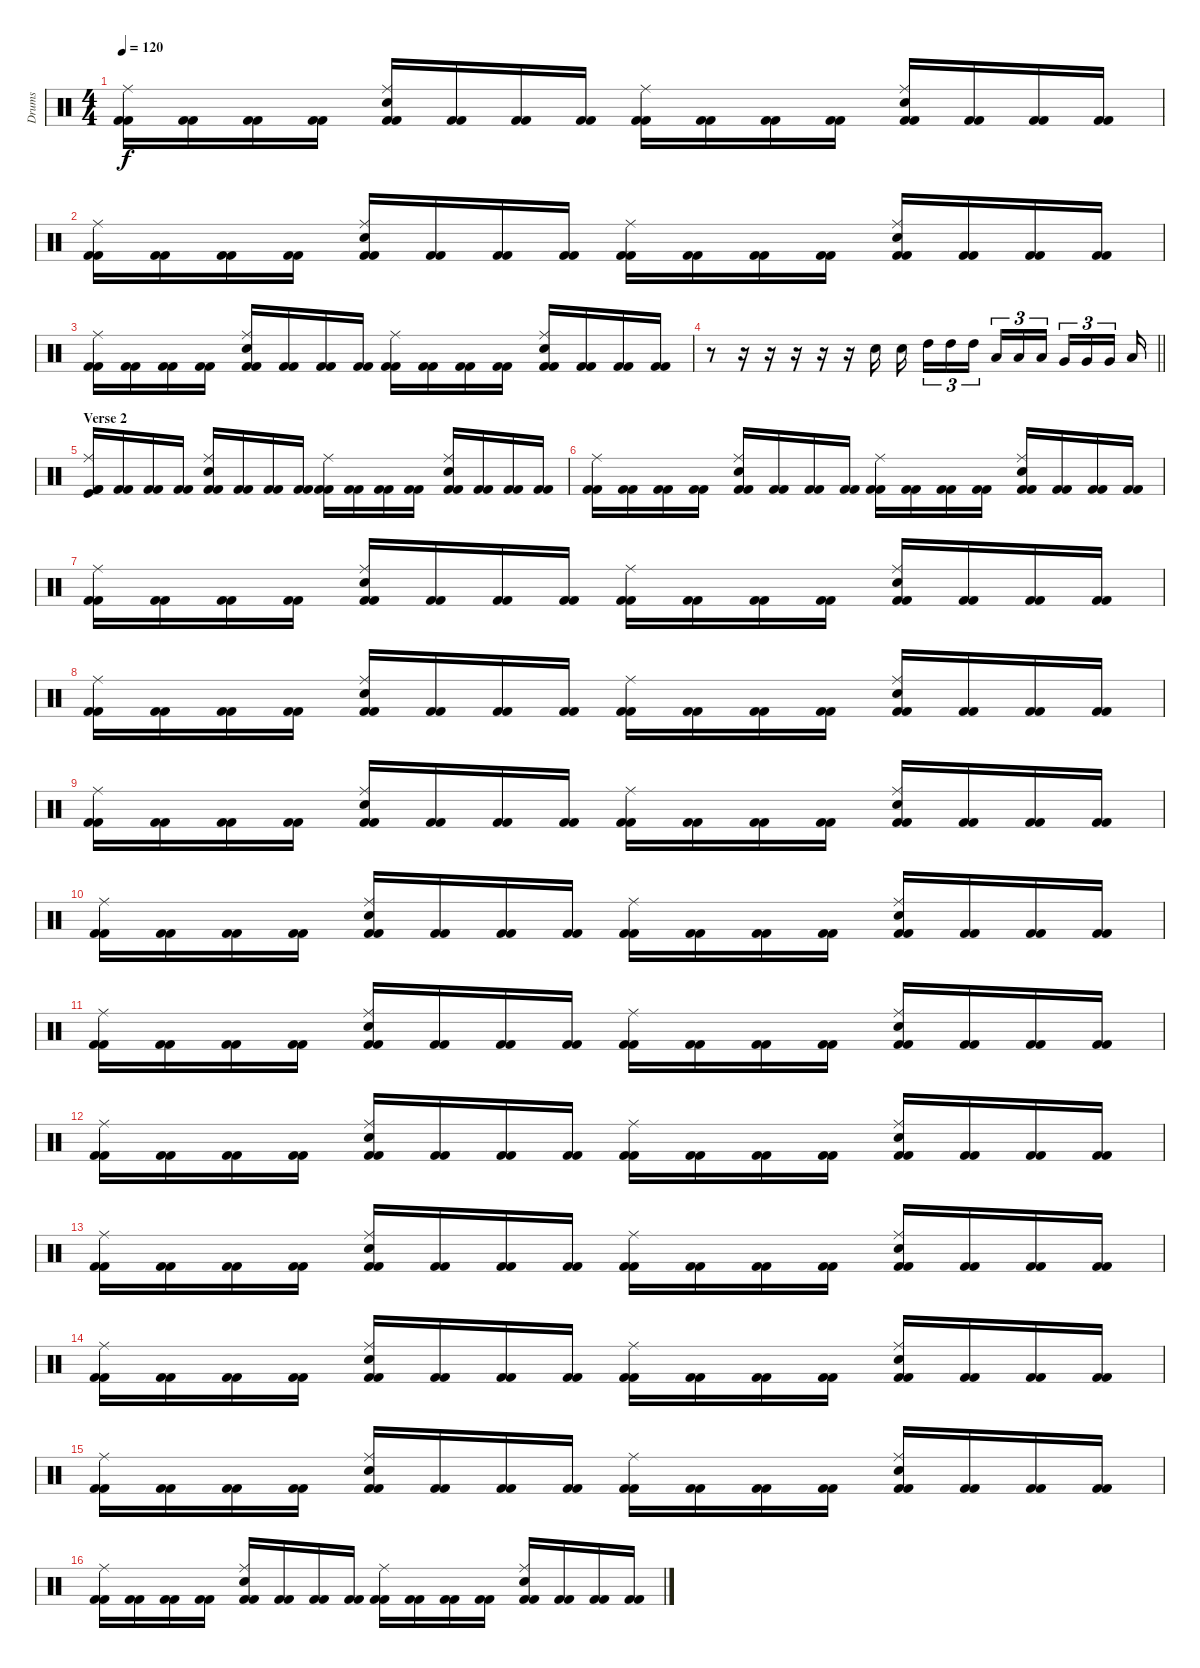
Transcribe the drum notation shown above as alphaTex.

\track ("Drums" "Drums") {instrument percussion}
\staff {score}
\articulation defaults
\ts (4 4)
\tempo 120
\clef neutral
\ks c
("Kick (hit) 2" "Ride (middle)" "Kick (hit) 2").16{dy f} ("Kick (hit) 2" "Kick (hit) 2").16 ("Kick (hit) 2" "Kick (hit) 2").16 ("Kick (hit) 2" "Kick (hit) 2").16 ("Kick (hit) 2" "Ride (middle)" "Electric Snare (hit)" "Kick (hit) 2").16 ("Kick (hit) 2" "Kick (hit) 2").16 ("Kick (hit) 2" "Kick (hit) 2").16 ("Kick (hit) 2" "Kick (hit) 2").16 ("Kick (hit) 2" "Ride (middle)" "Kick (hit) 2").16 ("Kick (hit) 2" "Kick (hit) 2").16 ("Kick (hit) 2" "Kick (hit) 2").16 ("Kick (hit) 2" "Kick (hit) 2").16 ("Kick (hit) 2" "Ride (middle)" "Electric Snare (hit)" "Kick (hit) 2").16 ("Kick (hit) 2" "Kick (hit) 2").16 ("Kick (hit) 2" "Kick (hit) 2").16 ("Kick (hit) 2" "Kick (hit) 2").16 |
("Kick (hit) 2" "Ride (middle)" "Kick (hit) 2").16 ("Kick (hit) 2" "Kick (hit) 2").16 ("Kick (hit) 2" "Kick (hit) 2").16 ("Kick (hit) 2" "Kick (hit) 2").16 ("Kick (hit) 2" "Ride (middle)" "Electric Snare (hit)" "Kick (hit) 2").16 ("Kick (hit) 2" "Kick (hit) 2").16 ("Kick (hit) 2" "Kick (hit) 2").16 ("Kick (hit) 2" "Kick (hit) 2").16 ("Kick (hit) 2" "Ride (middle)" "Kick (hit) 2").16 ("Kick (hit) 2" "Kick (hit) 2").16 ("Kick (hit) 2" "Kick (hit) 2").16 ("Kick (hit) 2" "Kick (hit) 2").16 ("Kick (hit) 2" "Ride (middle)" "Electric Snare (hit)" "Kick (hit) 2").16 ("Kick (hit) 2" "Kick (hit) 2").16 ("Kick (hit) 2" "Kick (hit) 2").16 ("Kick (hit) 2" "Kick (hit) 2").16 |
("Kick (hit) 2" "Ride (middle)" "Kick (hit) 2").16 ("Kick (hit) 2" "Kick (hit) 2").16 ("Kick (hit) 2" "Kick (hit) 2").16 ("Kick (hit) 2" "Kick (hit) 2").16 ("Kick (hit) 2" "Ride (middle)" "Electric Snare (hit)" "Kick (hit) 2").16 ("Kick (hit) 2" "Kick (hit) 2").16 ("Kick (hit) 2" "Kick (hit) 2").16 ("Kick (hit) 2" "Kick (hit) 2").16 ("Kick (hit) 2" "Ride (middle)" "Kick (hit) 2").16 ("Kick (hit) 2" "Kick (hit) 2").16 ("Kick (hit) 2" "Kick (hit) 2").16 ("Kick (hit) 2" "Kick (hit) 2").16 ("Kick (hit) 2" "Ride (middle)" "Electric Snare (hit)" "Kick (hit) 2").16 ("Kick (hit) 2" "Kick (hit) 2").16 ("Kick (hit) 2" "Kick (hit) 2").16 ("Kick (hit) 2" "Kick (hit) 2").16 |
\barLineRight lightlight
r.8 r.16 r.16 r.16 r.16 r.16 "Electric Snare (hit)".16 "Electric Snare (hit)".16{beam splitsecondary} "High Tom (hit)".16{tu (3 2)} "High Tom (hit)".16{tu (3 2)} "High Tom (hit)".16{tu (3 2) beam splitsecondary} "Low Tom (hit)".16{tu (3 2)} "Low Tom (hit)".16{tu (3 2)} "Low Tom (hit)".16{tu (3 2) beam splitsecondary} "Very Low Tom (hit)".16{tu (3 2)} "Very Low Tom (hit)".16{tu (3 2)} "Very Low Tom (hit)".16{tu (3 2) beam splitsecondary} "Low Floor Tom (hit)".16 |
\section ("" "Verse 2")
("Kick (hit) 2" "Ride (middle)" "Kick (hit)" "Kick (hit) 2").16 ("Kick (hit) 2" "Kick (hit) 2").16 ("Kick (hit) 2" "Kick (hit) 2").16 ("Kick (hit) 2" "Kick (hit) 2").16 ("Kick (hit) 2" "Ride (middle)" "Electric Snare (hit)" "Kick (hit) 2").16 ("Kick (hit) 2" "Kick (hit) 2").16 ("Kick (hit) 2" "Kick (hit) 2").16 ("Kick (hit) 2" "Kick (hit) 2").16 ("Kick (hit) 2" "Ride (middle)" "Kick (hit) 2").16 ("Kick (hit) 2" "Kick (hit) 2").16 ("Kick (hit) 2" "Kick (hit) 2").16 ("Kick (hit) 2" "Kick (hit) 2").16 ("Kick (hit) 2" "Ride (middle)" "Electric Snare (hit)" "Kick (hit) 2").16 ("Kick (hit) 2" "Kick (hit) 2").16 ("Kick (hit) 2" "Kick (hit) 2").16 ("Kick (hit) 2" "Kick (hit) 2").16 |
("Kick (hit) 2" "Ride (middle)" "Kick (hit) 2").16 ("Kick (hit) 2" "Kick (hit) 2").16 ("Kick (hit) 2" "Kick (hit) 2").16 ("Kick (hit) 2" "Kick (hit) 2").16 ("Kick (hit) 2" "Ride (middle)" "Electric Snare (hit)" "Kick (hit) 2").16 ("Kick (hit) 2" "Kick (hit) 2").16 ("Kick (hit) 2" "Kick (hit) 2").16 ("Kick (hit) 2" "Kick (hit) 2").16 ("Kick (hit) 2" "Ride (middle)" "Kick (hit) 2").16 ("Kick (hit) 2" "Kick (hit) 2").16 ("Kick (hit) 2" "Kick (hit) 2").16 ("Kick (hit) 2" "Kick (hit) 2").16 ("Kick (hit) 2" "Ride (middle)" "Electric Snare (hit)" "Kick (hit) 2").16 ("Kick (hit) 2" "Kick (hit) 2").16 ("Kick (hit) 2" "Kick (hit) 2").16 ("Kick (hit) 2" "Kick (hit) 2").16 |
("Kick (hit) 2" "Ride (middle)" "Kick (hit) 2").16 ("Kick (hit) 2" "Kick (hit) 2").16 ("Kick (hit) 2" "Kick (hit) 2").16 ("Kick (hit) 2" "Kick (hit) 2").16 ("Kick (hit) 2" "Ride (middle)" "Electric Snare (hit)" "Kick (hit) 2").16 ("Kick (hit) 2" "Kick (hit) 2").16 ("Kick (hit) 2" "Kick (hit) 2").16 ("Kick (hit) 2" "Kick (hit) 2").16 ("Kick (hit) 2" "Ride (middle)" "Kick (hit) 2").16 ("Kick (hit) 2" "Kick (hit) 2").16 ("Kick (hit) 2" "Kick (hit) 2").16 ("Kick (hit) 2" "Kick (hit) 2").16 ("Kick (hit) 2" "Ride (middle)" "Electric Snare (hit)" "Kick (hit) 2").16 ("Kick (hit) 2" "Kick (hit) 2").16 ("Kick (hit) 2" "Kick (hit) 2").16 ("Kick (hit) 2" "Kick (hit) 2").16 |
("Kick (hit) 2" "Ride (middle)" "Kick (hit) 2").16 ("Kick (hit) 2" "Kick (hit) 2").16 ("Kick (hit) 2" "Kick (hit) 2").16 ("Kick (hit) 2" "Kick (hit) 2").16 ("Kick (hit) 2" "Ride (middle)" "Electric Snare (hit)" "Kick (hit) 2").16 ("Kick (hit) 2" "Kick (hit) 2").16 ("Kick (hit) 2" "Kick (hit) 2").16 ("Kick (hit) 2" "Kick (hit) 2").16 ("Kick (hit) 2" "Ride (middle)" "Kick (hit) 2").16 ("Kick (hit) 2" "Kick (hit) 2").16 ("Kick (hit) 2" "Kick (hit) 2").16 ("Kick (hit) 2" "Kick (hit) 2").16 ("Kick (hit) 2" "Ride (middle)" "Electric Snare (hit)" "Kick (hit) 2").16 ("Kick (hit) 2" "Kick (hit) 2").16 ("Kick (hit) 2" "Kick (hit) 2").16 ("Kick (hit) 2" "Kick (hit) 2").16 |
("Kick (hit) 2" "Ride (middle)" "Kick (hit) 2").16 ("Kick (hit) 2" "Kick (hit) 2").16 ("Kick (hit) 2" "Kick (hit) 2").16 ("Kick (hit) 2" "Kick (hit) 2").16 ("Kick (hit) 2" "Ride (middle)" "Electric Snare (hit)" "Kick (hit) 2").16 ("Kick (hit) 2" "Kick (hit) 2").16 ("Kick (hit) 2" "Kick (hit) 2").16 ("Kick (hit) 2" "Kick (hit) 2").16 ("Kick (hit) 2" "Ride (middle)" "Kick (hit) 2").16 ("Kick (hit) 2" "Kick (hit) 2").16 ("Kick (hit) 2" "Kick (hit) 2").16 ("Kick (hit) 2" "Kick (hit) 2").16 ("Kick (hit) 2" "Ride (middle)" "Electric Snare (hit)" "Kick (hit) 2").16 ("Kick (hit) 2" "Kick (hit) 2").16 ("Kick (hit) 2" "Kick (hit) 2").16 ("Kick (hit) 2" "Kick (hit) 2").16 |
("Kick (hit) 2" "Ride (middle)" "Kick (hit) 2").16 ("Kick (hit) 2" "Kick (hit) 2").16 ("Kick (hit) 2" "Kick (hit) 2").16 ("Kick (hit) 2" "Kick (hit) 2").16 ("Kick (hit) 2" "Ride (middle)" "Electric Snare (hit)" "Kick (hit) 2").16 ("Kick (hit) 2" "Kick (hit) 2").16 ("Kick (hit) 2" "Kick (hit) 2").16 ("Kick (hit) 2" "Kick (hit) 2").16 ("Kick (hit) 2" "Ride (middle)" "Kick (hit) 2").16 ("Kick (hit) 2" "Kick (hit) 2").16 ("Kick (hit) 2" "Kick (hit) 2").16 ("Kick (hit) 2" "Kick (hit) 2").16 ("Kick (hit) 2" "Ride (middle)" "Electric Snare (hit)" "Kick (hit) 2").16 ("Kick (hit) 2" "Kick (hit) 2").16 ("Kick (hit) 2" "Kick (hit) 2").16 ("Kick (hit) 2" "Kick (hit) 2").16 |
("Kick (hit) 2" "Ride (middle)" "Kick (hit) 2").16 ("Kick (hit) 2" "Kick (hit) 2").16 ("Kick (hit) 2" "Kick (hit) 2").16 ("Kick (hit) 2" "Kick (hit) 2").16 ("Kick (hit) 2" "Ride (middle)" "Electric Snare (hit)" "Kick (hit) 2").16 ("Kick (hit) 2" "Kick (hit) 2").16 ("Kick (hit) 2" "Kick (hit) 2").16 ("Kick (hit) 2" "Kick (hit) 2").16 ("Kick (hit) 2" "Ride (middle)" "Kick (hit) 2").16 ("Kick (hit) 2" "Kick (hit) 2").16 ("Kick (hit) 2" "Kick (hit) 2").16 ("Kick (hit) 2" "Kick (hit) 2").16 ("Kick (hit) 2" "Ride (middle)" "Electric Snare (hit)" "Kick (hit) 2").16 ("Kick (hit) 2" "Kick (hit) 2").16 ("Kick (hit) 2" "Kick (hit) 2").16 ("Kick (hit) 2" "Kick (hit) 2").16 |
("Kick (hit) 2" "Ride (middle)" "Kick (hit) 2").16 ("Kick (hit) 2" "Kick (hit) 2").16 ("Kick (hit) 2" "Kick (hit) 2").16 ("Kick (hit) 2" "Kick (hit) 2").16 ("Kick (hit) 2" "Ride (middle)" "Electric Snare (hit)" "Kick (hit) 2").16 ("Kick (hit) 2" "Kick (hit) 2").16 ("Kick (hit) 2" "Kick (hit) 2").16 ("Kick (hit) 2" "Kick (hit) 2").16 ("Kick (hit) 2" "Ride (middle)" "Kick (hit) 2").16 ("Kick (hit) 2" "Kick (hit) 2").16 ("Kick (hit) 2" "Kick (hit) 2").16 ("Kick (hit) 2" "Kick (hit) 2").16 ("Kick (hit) 2" "Ride (middle)" "Electric Snare (hit)" "Kick (hit) 2").16 ("Kick (hit) 2" "Kick (hit) 2").16 ("Kick (hit) 2" "Kick (hit) 2").16 ("Kick (hit) 2" "Kick (hit) 2").16 |
("Kick (hit) 2" "Ride (middle)" "Kick (hit) 2").16 ("Kick (hit) 2" "Kick (hit) 2").16 ("Kick (hit) 2" "Kick (hit) 2").16 ("Kick (hit) 2" "Kick (hit) 2").16 ("Kick (hit) 2" "Ride (middle)" "Electric Snare (hit)" "Kick (hit) 2").16 ("Kick (hit) 2" "Kick (hit) 2").16 ("Kick (hit) 2" "Kick (hit) 2").16 ("Kick (hit) 2" "Kick (hit) 2").16 ("Kick (hit) 2" "Ride (middle)" "Kick (hit) 2").16 ("Kick (hit) 2" "Kick (hit) 2").16 ("Kick (hit) 2" "Kick (hit) 2").16 ("Kick (hit) 2" "Kick (hit) 2").16 ("Kick (hit) 2" "Ride (middle)" "Electric Snare (hit)" "Kick (hit) 2").16 ("Kick (hit) 2" "Kick (hit) 2").16 ("Kick (hit) 2" "Kick (hit) 2").16 ("Kick (hit) 2" "Kick (hit) 2").16 |
("Kick (hit) 2" "Ride (middle)" "Kick (hit) 2").16 ("Kick (hit) 2" "Kick (hit) 2").16 ("Kick (hit) 2" "Kick (hit) 2").16 ("Kick (hit) 2" "Kick (hit) 2").16 ("Kick (hit) 2" "Ride (middle)" "Electric Snare (hit)" "Kick (hit) 2").16 ("Kick (hit) 2" "Kick (hit) 2").16 ("Kick (hit) 2" "Kick (hit) 2").16 ("Kick (hit) 2" "Kick (hit) 2").16 ("Kick (hit) 2" "Ride (middle)" "Kick (hit) 2").16 ("Kick (hit) 2" "Kick (hit) 2").16 ("Kick (hit) 2" "Kick (hit) 2").16 ("Kick (hit) 2" "Kick (hit) 2").16 ("Kick (hit) 2" "Ride (middle)" "Electric Snare (hit)" "Kick (hit) 2").16 ("Kick (hit) 2" "Kick (hit) 2").16 ("Kick (hit) 2" "Kick (hit) 2").16 ("Kick (hit) 2" "Kick (hit) 2").16 |
("Kick (hit) 2" "Ride (middle)" "Kick (hit) 2").16 ("Kick (hit) 2" "Kick (hit) 2").16 ("Kick (hit) 2" "Kick (hit) 2").16 ("Kick (hit) 2" "Kick (hit) 2").16 ("Kick (hit) 2" "Ride (middle)" "Electric Snare (hit)" "Kick (hit) 2").16 ("Kick (hit) 2" "Kick (hit) 2").16 ("Kick (hit) 2" "Kick (hit) 2").16 ("Kick (hit) 2" "Kick (hit) 2").16 ("Kick (hit) 2" "Ride (middle)" "Kick (hit) 2").16 ("Kick (hit) 2" "Kick (hit) 2").16 ("Kick (hit) 2" "Kick (hit) 2").16 ("Kick (hit) 2" "Kick (hit) 2").16 ("Kick (hit) 2" "Ride (middle)" "Electric Snare (hit)" "Kick (hit) 2").16 ("Kick (hit) 2" "Kick (hit) 2").16 ("Kick (hit) 2" "Kick (hit) 2").16 ("Kick (hit) 2" "Kick (hit) 2").16 |
("Kick (hit) 2" "Ride (middle)" "Kick (hit) 2").16 ("Kick (hit) 2" "Kick (hit) 2").16 ("Kick (hit) 2" "Kick (hit) 2").16 ("Kick (hit) 2" "Kick (hit) 2").16 ("Kick (hit) 2" "Ride (middle)" "Electric Snare (hit)" "Kick (hit) 2").16 ("Kick (hit) 2" "Kick (hit) 2").16 ("Kick (hit) 2" "Kick (hit) 2").16 ("Kick (hit) 2" "Kick (hit) 2").16 ("Kick (hit) 2" "Ride (middle)" "Kick (hit) 2").16 ("Kick (hit) 2" "Kick (hit) 2").16 ("Kick (hit) 2" "Kick (hit) 2").16 ("Kick (hit) 2" "Kick (hit) 2").16 ("Kick (hit) 2" "Ride (middle)" "Electric Snare (hit)" "Kick (hit) 2").16 ("Kick (hit) 2" "Kick (hit) 2").16 ("Kick (hit) 2" "Kick (hit) 2").16 ("Kick (hit) 2" "Kick (hit) 2").16
